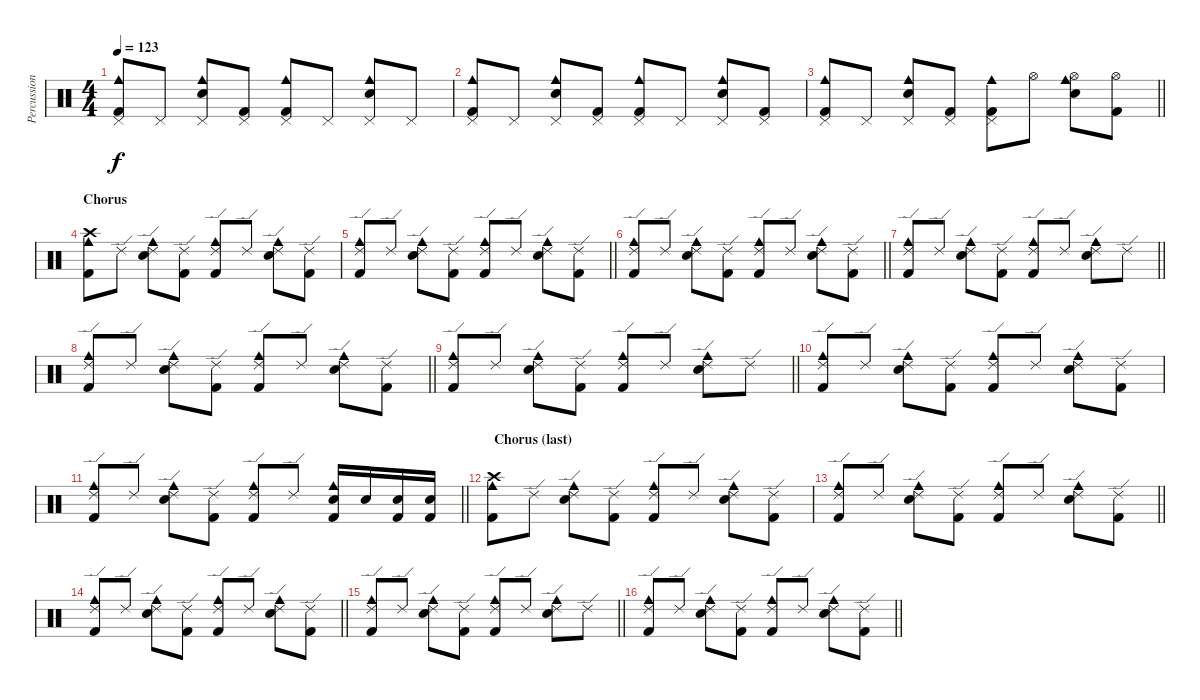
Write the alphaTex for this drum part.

\track ("Percussion" "Percussion") {instrument percussion}
\staff {score}
\articulation defaults
\ts (4 4)
\tempo 123
\clef neutral
\ks c
("Pedal Hi-Hat (hit)" "Kick (hit) 2" "Cowbell medium (hit)").8{dy f} "Pedal Hi-Hat (hit)".8 ("Pedal Hi-Hat (hit)" "Electric Snare (hit)" "Cowbell medium (hit)").8 ("Pedal Hi-Hat (hit)" "Kick (hit) 2").8 ("Pedal Hi-Hat (hit)" "Kick (hit) 2" "Cowbell medium (hit)").8 "Pedal Hi-Hat (hit)".8 ("Pedal Hi-Hat (hit)" "Electric Snare (hit)" "Cowbell medium (hit)").8 "Pedal Hi-Hat (hit)".8 |
("Pedal Hi-Hat (hit)" "Kick (hit) 2" "Cowbell medium (hit)").8 "Pedal Hi-Hat (hit)".8 ("Pedal Hi-Hat (hit)" "Electric Snare (hit)" "Cowbell medium (hit)").8 ("Pedal Hi-Hat (hit)" "Kick (hit) 2").8 ("Pedal Hi-Hat (hit)" "Kick (hit) 2" "Cowbell medium (hit)").8 "Pedal Hi-Hat (hit)".8 ("Pedal Hi-Hat (hit)" "Electric Snare (hit)" "Cowbell medium (hit)").8 ("Pedal Hi-Hat (hit)" "Kick (hit) 2").8 |
\barLineRight lightlight
("Pedal Hi-Hat (hit)" "Kick (hit) 2" "Cowbell medium (hit)").8 "Pedal Hi-Hat (hit)".8 ("Pedal Hi-Hat (hit)" "Electric Snare (hit)" "Cowbell medium (hit)").8 ("Pedal Hi-Hat (hit)" "Kick (hit) 2").8 ("Pedal Hi-Hat (hit)" "Kick (hit) 2" "Cowbell medium (hit)").8 "Hi-Hat (open)".8 ("Hi-Hat (open)" "Electric Snare (hit)" "Cowbell medium (hit)").8 ("Hi-Hat (open)" "Kick (hit) 2").8 |
\section ("" "Chorus ")
("Crash high (hit)" "Kick (hit) 2" "Cowbell medium (hit)").8 "Ride (edge) 2".8 ("Ride (edge) 2" "Electric Snare (hit)" "Cowbell medium (hit)").8 ("Ride (edge) 2" "Kick (hit) 2").8 ("Ride (edge) 2" "Kick (hit) 2" "Cowbell medium (hit)").8 "Ride (edge) 2".8 ("Ride (edge) 2" "Electric Snare (hit)" "Cowbell medium (hit)").8 ("Ride (edge) 2" "Kick (hit) 2").8 |
\barLineRight lightlight
("Ride (edge) 2" "Kick (hit) 2" "Cowbell medium (hit)").8 "Ride (edge) 2".8 ("Ride (edge) 2" "Electric Snare (hit)" "Cowbell medium (hit)").8 ("Ride (edge) 2" "Kick (hit) 2").8 ("Ride (edge) 2" "Kick (hit) 2" "Cowbell medium (hit)").8 "Ride (edge) 2".8 ("Ride (edge) 2" "Electric Snare (hit)" "Cowbell medium (hit)").8 ("Ride (edge) 2" "Kick (hit) 2").8 |
\barLineRight lightlight
("Ride (edge) 2" "Kick (hit) 2" "Cowbell medium (hit)").8 "Ride (edge) 2".8 ("Ride (edge) 2" "Electric Snare (hit)" "Cowbell medium (hit)").8 ("Ride (edge) 2" "Kick (hit) 2").8 ("Ride (edge) 2" "Kick (hit) 2" "Cowbell medium (hit)").8 "Ride (edge) 2".8 ("Ride (edge) 2" "Electric Snare (hit)" "Cowbell medium (hit)").8 ("Ride (edge) 2" "Kick (hit) 2").8 |
\barLineRight lightlight
("Ride (edge) 2" "Kick (hit) 2" "Cowbell medium (hit)").8 "Ride (edge) 2".8 ("Ride (edge) 2" "Electric Snare (hit)" "Cowbell medium (hit)").8 ("Ride (edge) 2" "Kick (hit) 2").8 ("Ride (edge) 2" "Kick (hit) 2" "Cowbell medium (hit)").8 "Ride (edge) 2".8 ("Ride (edge) 2" "Electric Snare (hit)" "Cowbell medium (hit)").8 "Ride (edge) 2".8 |
\barLineRight lightlight
("Ride (edge) 2" "Kick (hit) 2" "Cowbell medium (hit)").8 "Ride (edge) 2".8 ("Ride (edge) 2" "Electric Snare (hit)" "Cowbell medium (hit)").8 ("Ride (edge) 2" "Kick (hit) 2").8 ("Ride (edge) 2" "Kick (hit) 2" "Cowbell medium (hit)").8 "Ride (edge) 2".8 ("Ride (edge) 2" "Electric Snare (hit)" "Cowbell medium (hit)").8 ("Ride (edge) 2" "Kick (hit) 2").8 |
\barLineRight lightlight
("Ride (edge) 2" "Kick (hit) 2" "Cowbell medium (hit)").8 "Ride (edge) 2".8 ("Ride (edge) 2" "Electric Snare (hit)" "Cowbell medium (hit)").8 ("Ride (edge) 2" "Kick (hit) 2").8 ("Ride (edge) 2" "Kick (hit) 2" "Cowbell medium (hit)").8 "Ride (edge) 2".8 ("Ride (edge) 2" "Electric Snare (hit)" "Cowbell medium (hit)").8 "Ride (edge) 2".8 |
("Ride (edge) 2" "Kick (hit) 2" "Cowbell medium (hit)").8 "Ride (edge) 2".8 ("Ride (edge) 2" "Electric Snare (hit)" "Cowbell medium (hit)").8 ("Ride (edge) 2" "Kick (hit) 2").8 ("Ride (edge) 2" "Kick (hit) 2" "Cowbell medium (hit)").8 "Ride (edge) 2".8 ("Ride (edge) 2" "Electric Snare (hit)" "Cowbell medium (hit)").8 ("Ride (edge) 2" "Kick (hit) 2").8 |
\barLineRight lightlight
("Ride (edge) 2" "Kick (hit) 2" "Cowbell medium (hit)").8 "Ride (edge) 2".8 ("Ride (edge) 2" "Electric Snare (hit)" "Cowbell medium (hit)").8 ("Ride (edge) 2" "Kick (hit) 2").8 ("Ride (edge) 2" "Kick (hit) 2" "Cowbell medium (hit)").8 "Ride (edge) 2".8 ("Kick (hit) 2" "Electric Snare (hit)" "Cowbell medium (hit)").16 "Electric Snare (hit)".16 ("Kick (hit) 2" "Electric Snare (hit)").16 ("Kick (hit) 2" "Electric Snare (hit)").16 |
\section ("" "  Chorus (last)")
("Crash high (hit)" "Kick (hit) 2" "Cowbell medium (hit)").8 "Ride (edge) 2".8 ("Ride (edge) 2" "Electric Snare (hit)" "Cowbell medium (hit)").8 ("Ride (edge) 2" "Kick (hit) 2").8 ("Ride (edge) 2" "Kick (hit) 2" "Cowbell medium (hit)").8 "Ride (edge) 2".8 ("Ride (edge) 2" "Electric Snare (hit)" "Cowbell medium (hit)").8 ("Ride (edge) 2" "Kick (hit) 2").8 |
\barLineRight lightlight
("Ride (edge) 2" "Kick (hit) 2" "Cowbell medium (hit)").8 "Ride (edge) 2".8 ("Ride (edge) 2" "Electric Snare (hit)" "Cowbell medium (hit)").8 ("Ride (edge) 2" "Kick (hit) 2").8 ("Ride (edge) 2" "Kick (hit) 2" "Cowbell medium (hit)").8 "Ride (edge) 2".8 ("Ride (edge) 2" "Electric Snare (hit)" "Cowbell medium (hit)").8 ("Ride (edge) 2" "Kick (hit) 2").8 |
\barLineRight lightlight
("Ride (edge) 2" "Kick (hit) 2" "Cowbell medium (hit)").8 "Ride (edge) 2".8 ("Ride (edge) 2" "Electric Snare (hit)" "Cowbell medium (hit)").8 ("Ride (edge) 2" "Kick (hit) 2").8 ("Ride (edge) 2" "Kick (hit) 2" "Cowbell medium (hit)").8 "Ride (edge) 2".8 ("Ride (edge) 2" "Electric Snare (hit)" "Cowbell medium (hit)").8 ("Ride (edge) 2" "Kick (hit) 2").8 |
\barLineRight lightlight
("Ride (edge) 2" "Kick (hit) 2" "Cowbell medium (hit)").8 "Ride (edge) 2".8 ("Ride (edge) 2" "Electric Snare (hit)" "Cowbell medium (hit)").8 ("Ride (edge) 2" "Kick (hit) 2").8 ("Ride (edge) 2" "Kick (hit) 2" "Cowbell medium (hit)").8 "Ride (edge) 2".8 ("Ride (edge) 2" "Electric Snare (hit)" "Cowbell medium (hit)").8 "Ride (edge) 2".8 |
\barLineRight lightlight
("Ride (edge) 2" "Kick (hit) 2" "Cowbell medium (hit)").8 "Ride (edge) 2".8 ("Ride (edge) 2" "Electric Snare (hit)" "Cowbell medium (hit)").8 ("Ride (edge) 2" "Kick (hit) 2").8 ("Ride (edge) 2" "Kick (hit) 2" "Cowbell medium (hit)").8 "Ride (edge) 2".8 ("Ride (edge) 2" "Electric Snare (hit)" "Cowbell medium (hit)").8 ("Ride (edge) 2" "Kick (hit) 2").8
